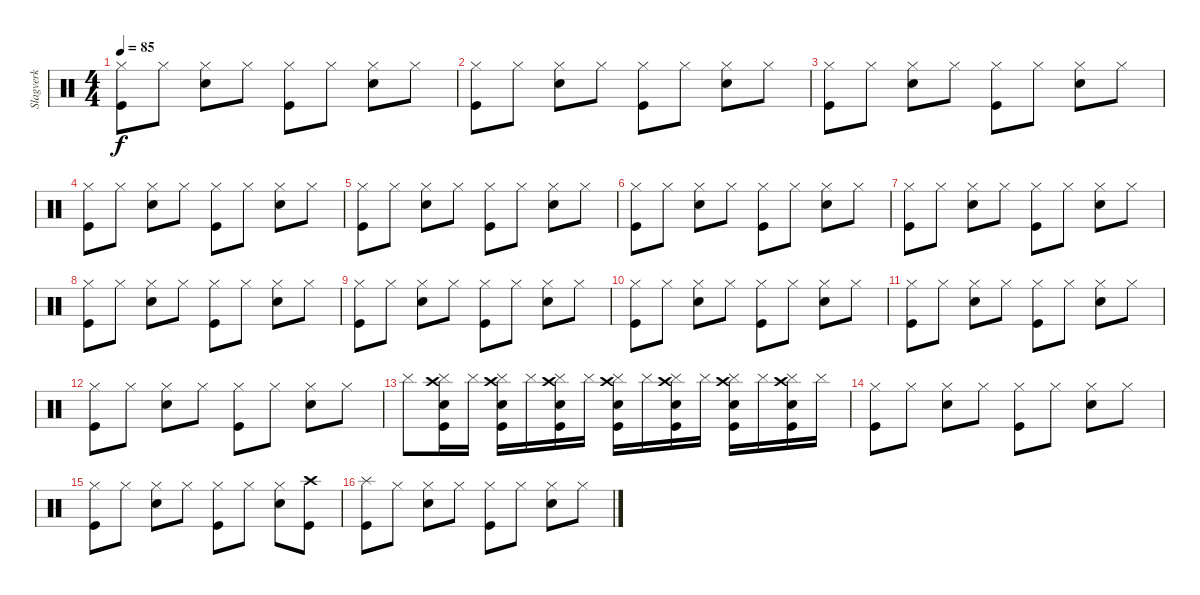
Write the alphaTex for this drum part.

\track ("Slagverk" "Slagverk") {instrument percussion}
\staff {score}
\articulation defaults
\ts (4 4)
\tempo 85
\clef neutral
\ks c
("Hi-Hat (closed)" "Kick (hit)").8{dy f} "Hi-Hat (closed)".8 ("Hi-Hat (closed)" "Electric Snare (hit)").8 "Hi-Hat (closed)".8 ("Hi-Hat (closed)" "Kick (hit)").8 "Hi-Hat (closed)".8 ("Hi-Hat (closed)" "Electric Snare (hit)").8 "Hi-Hat (closed)".8 |
("Hi-Hat (closed)" "Kick (hit)").8 "Hi-Hat (closed)".8 ("Hi-Hat (closed)" "Electric Snare (hit)").8 "Hi-Hat (closed)".8 ("Hi-Hat (closed)" "Kick (hit)").8 "Hi-Hat (closed)".8 ("Hi-Hat (closed)" "Electric Snare (hit)").8 "Hi-Hat (closed)".8 |
("Hi-Hat (closed)" "Kick (hit)").8 "Hi-Hat (closed)".8 ("Hi-Hat (closed)" "Electric Snare (hit)").8 "Hi-Hat (closed)".8 ("Hi-Hat (closed)" "Kick (hit)").8 "Hi-Hat (closed)".8 ("Hi-Hat (closed)" "Electric Snare (hit)").8 "Hi-Hat (closed)".8 |
("Hi-Hat (closed)" "Kick (hit)").8 "Hi-Hat (closed)".8 ("Hi-Hat (closed)" "Electric Snare (hit)").8 "Hi-Hat (closed)".8 ("Hi-Hat (closed)" "Kick (hit)").8 "Hi-Hat (closed)".8 ("Hi-Hat (closed)" "Electric Snare (hit)").8 "Hi-Hat (closed)".8 |
("Hi-Hat (closed)" "Kick (hit)").8 "Hi-Hat (closed)".8 ("Hi-Hat (closed)" "Electric Snare (hit)").8 "Hi-Hat (closed)".8 ("Hi-Hat (closed)" "Kick (hit)").8 "Hi-Hat (closed)".8 ("Hi-Hat (closed)" "Electric Snare (hit)").8 "Hi-Hat (closed)".8 |
("Hi-Hat (closed)" "Kick (hit)").8 "Hi-Hat (closed)".8 ("Hi-Hat (closed)" "Electric Snare (hit)").8 "Hi-Hat (closed)".8 ("Hi-Hat (closed)" "Kick (hit)").8 "Hi-Hat (closed)".8 ("Hi-Hat (closed)" "Electric Snare (hit)").8 "Hi-Hat (closed)".8 |
("Hi-Hat (closed)" "Kick (hit)").8 "Hi-Hat (closed)".8 ("Hi-Hat (closed)" "Electric Snare (hit)").8 "Hi-Hat (closed)".8 ("Hi-Hat (closed)" "Kick (hit)").8 "Hi-Hat (closed)".8 ("Hi-Hat (closed)" "Electric Snare (hit)").8 "Hi-Hat (closed)".8 |
("Hi-Hat (closed)" "Kick (hit)").8 "Hi-Hat (closed)".8 ("Hi-Hat (closed)" "Electric Snare (hit)").8 "Hi-Hat (closed)".8 ("Hi-Hat (closed)" "Kick (hit)").8 "Hi-Hat (closed)".8 ("Hi-Hat (closed)" "Electric Snare (hit)").8 "Hi-Hat (closed)".8 |
("Hi-Hat (closed)" "Kick (hit)").8 "Hi-Hat (closed)".8 ("Hi-Hat (closed)" "Electric Snare (hit)").8 "Hi-Hat (closed)".8 ("Hi-Hat (closed)" "Kick (hit)").8 "Hi-Hat (closed)".8 ("Hi-Hat (closed)" "Electric Snare (hit)").8 "Hi-Hat (closed)".8 |
("Hi-Hat (closed)" "Kick (hit)").8 "Hi-Hat (closed)".8 ("Hi-Hat (closed)" "Electric Snare (hit)").8 "Hi-Hat (closed)".8 ("Hi-Hat (closed)" "Kick (hit)").8 "Hi-Hat (closed)".8 ("Hi-Hat (closed)" "Electric Snare (hit)").8 "Hi-Hat (closed)".8 |
("Hi-Hat (closed)" "Kick (hit)").8 "Hi-Hat (closed)".8 ("Hi-Hat (closed)" "Electric Snare (hit)").8 "Hi-Hat (closed)".8 ("Hi-Hat (closed)" "Kick (hit)").8 "Hi-Hat (closed)".8 ("Hi-Hat (closed)" "Electric Snare (hit)").8 "Hi-Hat (closed)".8 |
("Hi-Hat (closed)" "Kick (hit)").8 "Hi-Hat (closed)".8 ("Hi-Hat (closed)" "Electric Snare (hit)").8 "Hi-Hat (closed)".8 ("Hi-Hat (closed)" "Kick (hit)").8 "Hi-Hat (closed)".8 ("Hi-Hat (closed)" "Electric Snare (hit)").8 "Hi-Hat (closed)".8 |
"Cymbal (hit)".8 ("Cymbal (hit)" "Crash high (hit)" "Kick (hit)" "Electric Snare (hit)").16 "Cymbal (hit)".16 ("Cymbal (hit)" "Crash high (hit)" "Kick (hit)" "Electric Snare (hit)").16 "Cymbal (hit)".16 ("Cymbal (hit)" "Crash high (hit)" "Kick (hit)" "Electric Snare (hit)").16 "Cymbal (hit)".16 ("Cymbal (hit)" "Crash high (hit)" "Kick (hit)" "Electric Snare (hit)").16 "Cymbal (hit)".16 ("Cymbal (hit)" "Crash high (hit)" "Kick (hit)" "Electric Snare (hit)").16 "Cymbal (hit)".16 ("Cymbal (hit)" "Crash high (hit)" "Kick (hit)" "Electric Snare (hit)").16 "Cymbal (hit)".16 ("Cymbal (hit)" "Crash high (hit)" "Kick (hit)" "Electric Snare (hit)").16 "Cymbal (hit)".16 |
("Hi-Hat (closed)" "Kick (hit)").8 "Hi-Hat (closed)".8 ("Hi-Hat (closed)" "Electric Snare (hit)").8 "Hi-Hat (closed)".8 ("Hi-Hat (closed)" "Kick (hit)").8 "Hi-Hat (closed)".8 ("Hi-Hat (closed)" "Electric Snare (hit)").8 "Hi-Hat (closed)".8 |
("Hi-Hat (closed)" "Kick (hit)").8 "Hi-Hat (closed)".8 ("Hi-Hat (closed)" "Electric Snare (hit)").8 "Hi-Hat (closed)".8 ("Hi-Hat (closed)" "Kick (hit)").8 "Hi-Hat (closed)".8 ("Hi-Hat (closed)" "Electric Snare (hit)").8 ("Crash high (hit)" "Kick (hit)").8 |
("Splash (hit)" "Kick (hit)").8 "Hi-Hat (closed)".8 ("Hi-Hat (closed)" "Electric Snare (hit)").8 "Hi-Hat (closed)".8 ("Hi-Hat (closed)" "Kick (hit)").8 "Hi-Hat (closed)".8 ("Hi-Hat (closed)" "Electric Snare (hit)").8 "Hi-Hat (closed)".8
